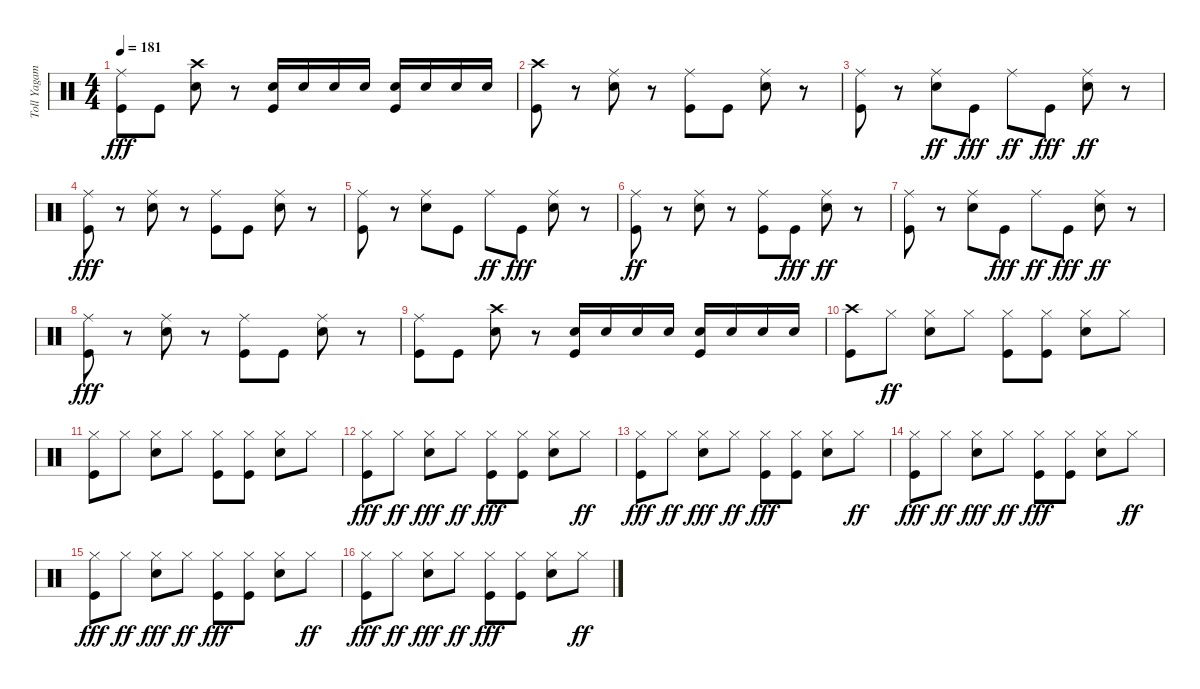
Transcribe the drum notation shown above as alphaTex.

\track ("Toll Yagami" "Toll Yagam") {instrument percussion}
\staff {score}
\articulation defaults
\ts (4 4)
\tempo 181
\clef neutral
\ks c
("Kick (hit)" "Ride (middle)").8{dy fff} "Kick (hit)".8 ("Crash high (hit)" "Snare (hit) 2").8 r.8 ("Kick (hit)" "Snare (hit) 2").16 "Snare (hit) 2".16 "Snare (hit) 2".16 "Snare (hit) 2".16 ("Kick (hit)" "Snare (hit) 2").16 "Snare (hit) 2".16 "Snare (hit) 2".16 "Snare (hit) 2".16 |
("Crash high (hit)" "Kick (hit)").8 r.8 ("Ride (middle)" "Snare (hit) 2").8 r.8 ("Ride (middle)" "Kick (hit)").8 "Kick (hit)".8 ("Ride (middle)" "Snare (hit) 2").8 r.8 |
("Ride (middle)" "Kick (hit)").8 r.8 ("Snare (hit) 2" "Ride (middle)").8{dy ff} "Kick (hit)".8{dy fff} "Ride (middle)".8{dy ff} "Kick (hit)".8{dy fff} ("Snare (hit) 2" "Ride (middle)").8{dy ff} r.8 |
("Ride (middle)" "Kick (hit)").8{dy fff} r.8 ("Ride (middle)" "Snare (hit) 2").8 r.8 ("Ride (middle)" "Kick (hit)").8 "Kick (hit)".8 ("Ride (middle)" "Snare (hit) 2").8 r.8 |
("Ride (middle)" "Kick (hit)").8 r.8 ("Ride (middle)" "Snare (hit) 2").8 "Kick (hit)".8 "Ride (middle)".8{dy ff} "Kick (hit)".8{dy fff} ("Ride (middle)" "Snare (hit) 2").8 r.8 |
("Kick (hit)" "Ride (middle)").8{dy ff} r.8 ("Snare (hit) 2" "Ride (middle)").8 r.8 ("Kick (hit)" "Ride (middle)").8 "Kick (hit)".8{dy fff} ("Snare (hit) 2" "Ride (middle)").8{dy ff} r.8 |
("Kick (hit)" "Ride (middle)").8 r.8 ("Snare (hit) 2" "Ride (middle)").8 "Kick (hit)".8{dy fff} "Ride (middle)".8{dy ff} "Kick (hit)".8{dy fff} ("Snare (hit) 2" "Ride (middle)").8{dy ff} r.8 |
("Ride (middle)" "Kick (hit)").8{dy fff} r.8 ("Ride (middle)" "Snare (hit) 2").8 r.8 ("Ride (middle)" "Kick (hit)").8 "Kick (hit)".8 ("Ride (middle)" "Snare (hit) 2").8 r.8 |
("Ride (middle)" "Kick (hit)").8 "Kick (hit)".8 ("Snare (hit) 2" "Crash high (hit)").8 r.8 ("Snare (hit) 2" "Kick (hit)").16 "Snare (hit) 2".16 "Snare (hit) 2".16 "Snare (hit) 2".16 ("Snare (hit) 2" "Kick (hit)").16 "Snare (hit) 2".16 "Snare (hit) 2".16 "Snare (hit) 2".16 |
("Kick (hit)" "Crash high (hit)").8 "Hi-Hat (closed)".8{dy ff} ("Snare (hit) 2" "Hi-Hat (closed)").8 "Hi-Hat (closed)".8 ("Kick (hit)" "Hi-Hat (closed)").8 ("Kick (hit)" "Hi-Hat (closed)").8 ("Snare (hit) 2" "Hi-Hat (closed)").8 "Hi-Hat (closed)".8 |
("Kick (hit)" "Hi-Hat (closed)").8 "Hi-Hat (closed)".8 ("Snare (hit) 2" "Hi-Hat (closed)").8 "Hi-Hat (closed)".8 ("Kick (hit)" "Hi-Hat (closed)").8 ("Kick (hit)" "Hi-Hat (closed)").8 ("Snare (hit) 2" "Hi-Hat (closed)").8 "Hi-Hat (closed)".8 |
("Hi-Hat (closed)" "Kick (hit)").8{dy fff} "Hi-Hat (closed)".8{dy ff} ("Hi-Hat (closed)" "Snare (hit) 2").8{dy fff} "Hi-Hat (closed)".8{dy ff} ("Hi-Hat (closed)" "Kick (hit)").8{dy fff} ("Hi-Hat (closed)" "Kick (hit)").8 ("Hi-Hat (closed)" "Snare (hit) 2").8 "Hi-Hat (closed)".8{dy ff} |
("Hi-Hat (closed)" "Kick (hit)").8{dy fff} "Hi-Hat (closed)".8{dy ff} ("Hi-Hat (closed)" "Snare (hit) 2").8{dy fff} "Hi-Hat (closed)".8{dy ff} ("Hi-Hat (closed)" "Kick (hit)").8{dy fff} ("Hi-Hat (closed)" "Kick (hit)").8 ("Hi-Hat (closed)" "Snare (hit) 2").8 "Hi-Hat (closed)".8{dy ff} |
("Hi-Hat (closed)" "Kick (hit)").8{dy fff} "Hi-Hat (closed)".8{dy ff} ("Hi-Hat (closed)" "Snare (hit) 2").8{dy fff} "Hi-Hat (closed)".8{dy ff} ("Hi-Hat (closed)" "Kick (hit)").8{dy fff} ("Hi-Hat (closed)" "Kick (hit)").8 ("Hi-Hat (closed)" "Snare (hit) 2").8 "Hi-Hat (closed)".8{dy ff} |
("Hi-Hat (closed)" "Kick (hit)").8{dy fff} "Hi-Hat (closed)".8{dy ff} ("Hi-Hat (closed)" "Snare (hit) 2").8{dy fff} "Hi-Hat (closed)".8{dy ff} ("Hi-Hat (closed)" "Kick (hit)").8{dy fff} ("Hi-Hat (closed)" "Kick (hit)").8 ("Hi-Hat (closed)" "Snare (hit) 2").8 "Hi-Hat (closed)".8{dy ff} |
("Hi-Hat (closed)" "Kick (hit)").8{dy fff} "Hi-Hat (closed)".8{dy ff} ("Hi-Hat (closed)" "Snare (hit) 2").8{dy fff} "Hi-Hat (closed)".8{dy ff} ("Hi-Hat (closed)" "Kick (hit)").8{dy fff} ("Hi-Hat (closed)" "Kick (hit)").8 ("Hi-Hat (closed)" "Snare (hit) 2").8 "Hi-Hat (closed)".8{dy ff}
